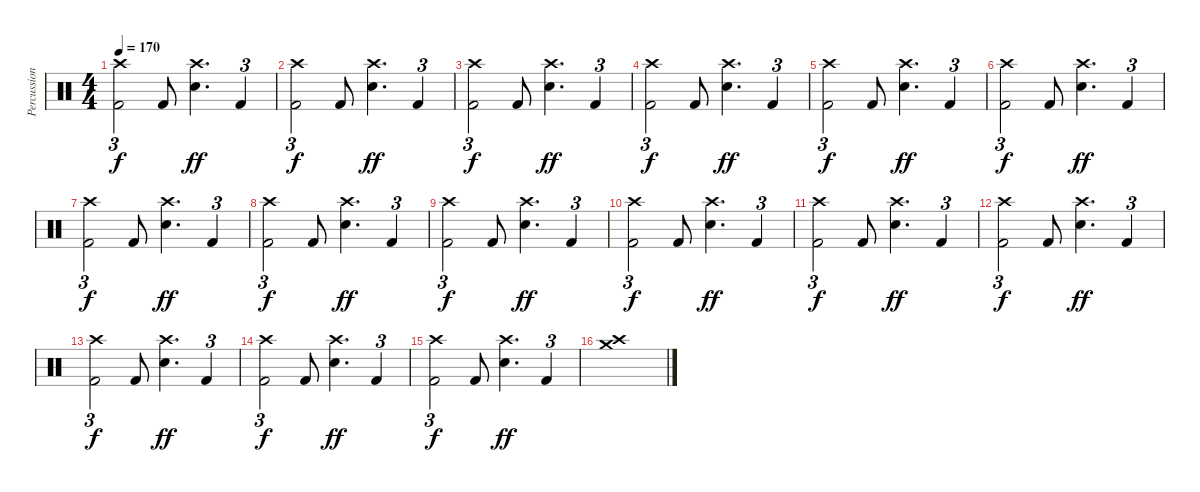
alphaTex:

\track ("Percussion" "Percussion") {instrument percussion bank 127}
\staff {score}
\articulation defaults
\ts (4 4)
\tempo 170
\clef neutral
\ks c
("Crash high (hit)" "Kick (hit) 2").2{tu (3 2) dy f} "Kick (hit) 2".8 ("Crash high (hit)" "Snare (hit) 2").4{d dy ff} "Kick (hit) 2".4{tu (3 2)} |
("Crash high (hit)" "Kick (hit) 2").2{tu (3 2) dy f} "Kick (hit) 2".8 ("Crash high (hit)" "Snare (hit) 2").4{d dy ff} "Kick (hit) 2".4{tu (3 2)} |
("Crash high (hit)" "Kick (hit) 2").2{tu (3 2) dy f} "Kick (hit) 2".8 ("Crash high (hit)" "Snare (hit) 2").4{d dy ff} "Kick (hit) 2".4{tu (3 2)} |
("Crash high (hit)" "Kick (hit) 2").2{tu (3 2) dy f} "Kick (hit) 2".8 ("Crash high (hit)" "Snare (hit) 2").4{d dy ff} "Kick (hit) 2".4{tu (3 2)} |
("Crash high (hit)" "Kick (hit) 2").2{tu (3 2) dy f} "Kick (hit) 2".8 ("Crash high (hit)" "Snare (hit) 2").4{d dy ff} "Kick (hit) 2".4{tu (3 2)} |
("Crash high (hit)" "Kick (hit) 2").2{tu (3 2) dy f} "Kick (hit) 2".8 ("Crash high (hit)" "Snare (hit) 2").4{d dy ff} "Kick (hit) 2".4{tu (3 2)} |
("Crash high (hit)" "Kick (hit) 2").2{tu (3 2) dy f} "Kick (hit) 2".8 ("Crash high (hit)" "Snare (hit) 2").4{d dy ff} "Kick (hit) 2".4{tu (3 2)} |
("Crash high (hit)" "Kick (hit) 2").2{tu (3 2) dy f} "Kick (hit) 2".8 ("Crash high (hit)" "Snare (hit) 2").4{d dy ff} "Kick (hit) 2".4{tu (3 2)} |
("Crash high (hit)" "Kick (hit) 2").2{tu (3 2) dy f} "Kick (hit) 2".8 ("Crash high (hit)" "Snare (hit) 2").4{d dy ff} "Kick (hit) 2".4{tu (3 2)} |
("Crash high (hit)" "Kick (hit) 2").2{tu (3 2) dy f} "Kick (hit) 2".8 ("Crash high (hit)" "Snare (hit) 2").4{d dy ff} "Kick (hit) 2".4{tu (3 2)} |
("Crash high (hit)" "Kick (hit) 2").2{tu (3 2) dy f} "Kick (hit) 2".8 ("Crash high (hit)" "Snare (hit) 2").4{d dy ff} "Kick (hit) 2".4{tu (3 2)} |
("Crash high (hit)" "Kick (hit) 2").2{tu (3 2) dy f} "Kick (hit) 2".8 ("Crash high (hit)" "Snare (hit) 2").4{d dy ff} "Kick (hit) 2".4{tu (3 2)} |
("Crash high (hit)" "Kick (hit) 2").2{tu (3 2) dy f} "Kick (hit) 2".8 ("Crash high (hit)" "Snare (hit) 2").4{d dy ff} "Kick (hit) 2".4{tu (3 2)} |
("Crash high (hit)" "Kick (hit) 2").2{tu (3 2) dy f} "Kick (hit) 2".8 ("Crash high (hit)" "Snare (hit) 2").4{d dy ff} "Kick (hit) 2".4{tu (3 2)} |
("Crash high (hit)" "Kick (hit) 2").2{tu (3 2) dy f} "Kick (hit) 2".8 ("Crash high (hit)" "Snare (hit) 2").4{d dy ff} "Kick (hit) 2".4{tu (3 2)} |
("Crash high (hit)" "Crash medium (hit)").1
